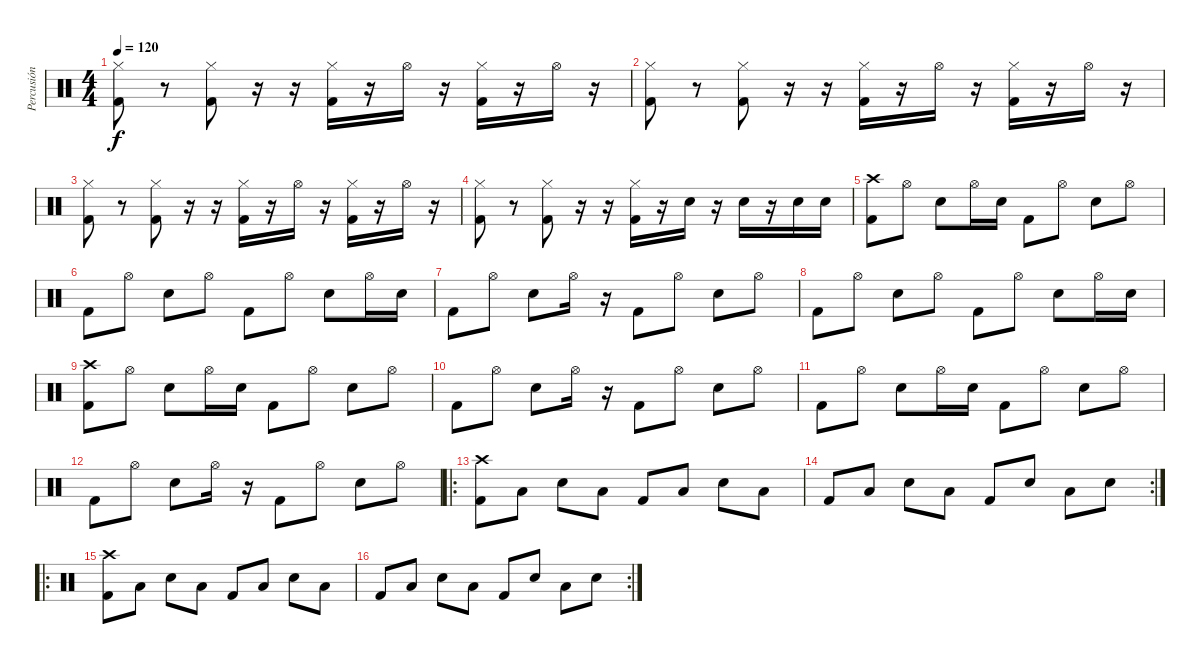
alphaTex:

\track ("Percusión" "Percusión") {instrument percussion}
\staff {score}
\articulation defaults
\ts (4 4)
\tempo 120
\clef neutral
\ks c
("Hi-Hat (closed)" "Kick (hit) 2").8{dy f} r.8 ("Hi-Hat (closed)" "Kick (hit) 2").8 r.16 r.16 ("Hi-Hat (closed)" "Kick (hit) 2").16 r.16 "Hi-Hat (open)".16 r.16 ("Hi-Hat (closed)" "Kick (hit) 2").16 r.16 "Hi-Hat (open)".16 r.16 |
("Hi-Hat (closed)" "Kick (hit) 2").8 r.8 ("Hi-Hat (closed)" "Kick (hit) 2").8 r.16 r.16 ("Hi-Hat (closed)" "Kick (hit) 2").16 r.16 "Hi-Hat (open)".16 r.16 ("Hi-Hat (closed)" "Kick (hit) 2").16 r.16 "Hi-Hat (open)".16 r.16 |
("Hi-Hat (closed)" "Kick (hit) 2").8 r.8 ("Hi-Hat (closed)" "Kick (hit) 2").8 r.16 r.16 ("Hi-Hat (closed)" "Kick (hit) 2").16 r.16 "Hi-Hat (open)".16 r.16 ("Hi-Hat (closed)" "Kick (hit) 2").16 r.16 "Hi-Hat (open)".16 r.16 |
("Hi-Hat (closed)" "Kick (hit) 2").8 r.8 ("Hi-Hat (closed)" "Kick (hit) 2").8 r.16 r.16 ("Hi-Hat (closed)" "Kick (hit) 2").16 r.16 "Electric Snare (hit)".16 r.16 "Electric Snare (hit)".16 r.16 "Electric Snare (hit)".16 "Electric Snare (hit)".16 |
("Crash high (hit)" "Kick (hit) 2").8 "Hi-Hat (open)".8 "Snare (hit) 2".8 "Hi-Hat (open)".16 "Snare (hit) 2".16 "Kick (hit) 2".8 "Hi-Hat (open)".8 "Snare (hit) 2".8 "Hi-Hat (open)".8 |
"Kick (hit) 2".8 "Hi-Hat (open)".8 "Snare (hit) 2".8 "Hi-Hat (open)".8 "Kick (hit) 2".8 "Hi-Hat (open)".8 "Snare (hit) 2".8 "Hi-Hat (open)".16 "Snare (hit) 2".16 |
"Kick (hit) 2".8 "Hi-Hat (open)".8 "Snare (hit) 2".8 "Hi-Hat (open)".16 r.16 "Kick (hit) 2".8 "Hi-Hat (open)".8 "Snare (hit) 2".8 "Hi-Hat (open)".8 |
"Kick (hit) 2".8 "Hi-Hat (open)".8 "Snare (hit) 2".8 "Hi-Hat (open)".8 "Kick (hit) 2".8 "Hi-Hat (open)".8 "Snare (hit) 2".8 "Hi-Hat (open)".16 "Snare (hit) 2".16 |
("Crash high (hit)" "Kick (hit) 2").8 "Hi-Hat (open)".8 "Snare (hit) 2".8 "Hi-Hat (open)".16 "Snare (hit) 2".16 "Kick (hit) 2".8 "Hi-Hat (open)".8 "Snare (hit) 2".8 "Hi-Hat (open)".8 |
"Kick (hit) 2".8 "Hi-Hat (open)".8 "Snare (hit) 2".8 "Hi-Hat (open)".16 r.16 "Kick (hit) 2".8 "Hi-Hat (open)".8 "Snare (hit) 2".8 "Hi-Hat (open)".8 |
"Kick (hit) 2".8 "Hi-Hat (open)".8 "Snare (hit) 2".8 "Hi-Hat (open)".16 "Snare (hit) 2".16 "Kick (hit) 2".8 "Hi-Hat (open)".8 "Snare (hit) 2".8 "Hi-Hat (open)".8 |
"Kick (hit) 2".8 "Hi-Hat (open)".8 "Snare (hit) 2".8 "Hi-Hat (open)".16 r.16 "Kick (hit) 2".8 "Hi-Hat (open)".8 "Snare (hit) 2".8 "Hi-Hat (open)".8 |
\ro
("Crash high (hit)" "Kick (hit) 2").8 "Low Floor Tom (hit)".8 "Snare (hit) 2".8 "Low Floor Tom (hit)".8 "Kick (hit) 2".8 "Low Floor Tom (hit)".8 "Snare (hit) 2".8 "Low Floor Tom (hit)".8 |
\rc 2 "Kick (hit) 2".8 "Low Floor Tom (hit)".8 "Snare (hit) 2".8 "Low Floor Tom (hit)".8 "Kick (hit) 2".8 "Snare (hit) 2".8 "Low Floor Tom (hit)".8 "Snare (hit) 2".8
|
\ro
("Crash high (hit)" "Kick (hit) 2").8 "Low Floor Tom (hit)".8 "Snare (hit) 2".8 "Low Floor Tom (hit)".8 "Kick (hit) 2".8 "Low Floor Tom (hit)".8 "Snare (hit) 2".8 "Low Floor Tom (hit)".8 |
\rc 2 "Kick (hit) 2".8 "Low Floor Tom (hit)".8 "Snare (hit) 2".8 "Low Floor Tom (hit)".8 "Kick (hit) 2".8 "Snare (hit) 2".8 "Low Floor Tom (hit)".8 "Snare (hit) 2".8
